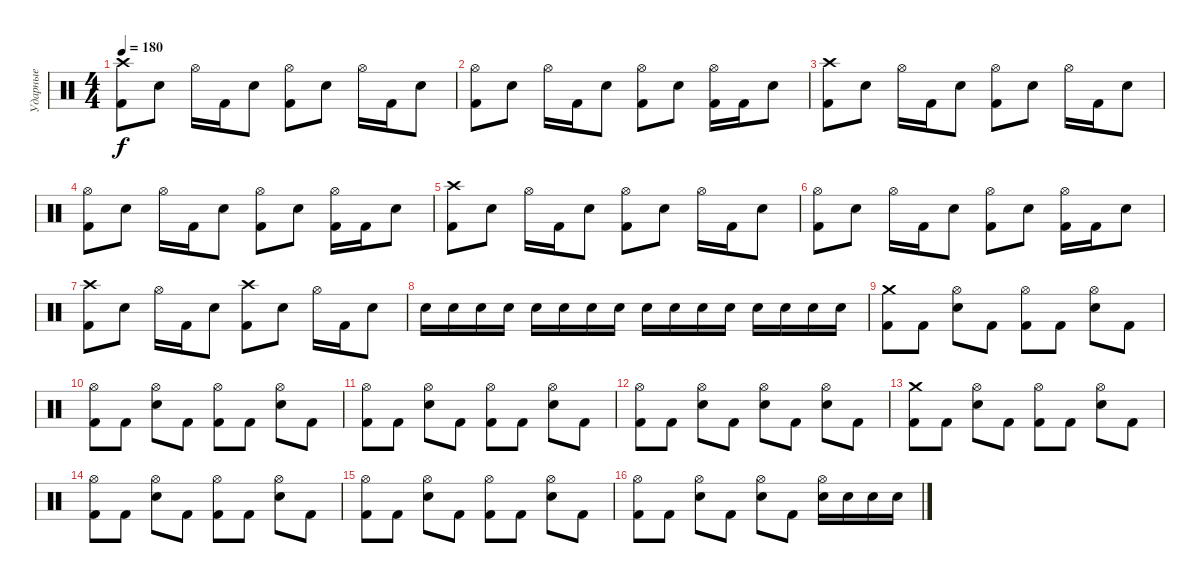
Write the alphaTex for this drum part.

\track ("Ударные" "Ударные") {instrument percussion}
\staff {score}
\articulation defaults
\ts (4 4)
\tempo 180
\clef neutral
\ks c
("Crash high (hit)" "Kick (hit) 2").8{dy f} "Electric Snare (hit)".8 "Hi-Hat (open)".16 "Kick (hit) 2".16 "Electric Snare (hit)".8 ("Hi-Hat (open)" "Kick (hit) 2").8 "Electric Snare (hit)".8 "Hi-Hat (open)".16 "Kick (hit) 2".16 "Electric Snare (hit)".8 |
("Hi-Hat (open)" "Kick (hit) 2").8 "Electric Snare (hit)".8 "Hi-Hat (open)".16 "Kick (hit) 2".16 "Electric Snare (hit)".8 ("Hi-Hat (open)" "Kick (hit) 2").8 "Electric Snare (hit)".8 ("Hi-Hat (open)" "Kick (hit) 2").16 "Kick (hit) 2".16 "Electric Snare (hit)".8 |
("Crash high (hit)" "Kick (hit) 2").8 "Electric Snare (hit)".8 "Hi-Hat (open)".16 "Kick (hit) 2".16 "Electric Snare (hit)".8 ("Hi-Hat (open)" "Kick (hit) 2").8 "Electric Snare (hit)".8 "Hi-Hat (open)".16 "Kick (hit) 2".16 "Electric Snare (hit)".8 |
("Hi-Hat (open)" "Kick (hit) 2").8 "Electric Snare (hit)".8 "Hi-Hat (open)".16 "Kick (hit) 2".16 "Electric Snare (hit)".8 ("Hi-Hat (open)" "Kick (hit) 2").8 "Electric Snare (hit)".8 ("Hi-Hat (open)" "Kick (hit) 2").16 "Kick (hit) 2".16 "Electric Snare (hit)".8 |
("Crash high (hit)" "Kick (hit) 2").8 "Electric Snare (hit)".8 "Hi-Hat (open)".16 "Kick (hit) 2".16 "Electric Snare (hit)".8 ("Hi-Hat (open)" "Kick (hit) 2").8 "Electric Snare (hit)".8 "Hi-Hat (open)".16 "Kick (hit) 2".16 "Electric Snare (hit)".8 |
("Hi-Hat (open)" "Kick (hit) 2").8 "Electric Snare (hit)".8 "Hi-Hat (open)".16 "Kick (hit) 2".16 "Electric Snare (hit)".8 ("Hi-Hat (open)" "Kick (hit) 2").8 "Electric Snare (hit)".8 ("Hi-Hat (open)" "Kick (hit) 2").16 "Kick (hit) 2".16 "Electric Snare (hit)".8 |
("Crash high (hit)" "Kick (hit) 2").8 "Electric Snare (hit)".8 "Hi-Hat (open)".16 "Kick (hit) 2".16 "Electric Snare (hit)".8 ("Crash high (hit)" "Kick (hit) 2").8 "Electric Snare (hit)".8 "Hi-Hat (open)".16 "Kick (hit) 2".16 "Electric Snare (hit)".8 |
"Electric Snare (hit)".16 "Electric Snare (hit)".16 "Electric Snare (hit)".16 "Electric Snare (hit)".16 "Electric Snare (hit)".16 "Electric Snare (hit)".16 "Electric Snare (hit)".16 "Electric Snare (hit)".16 "Electric Snare (hit)".16 "Electric Snare (hit)".16 "Electric Snare (hit)".16 "Electric Snare (hit)".16 "Electric Snare (hit)".16 "Electric Snare (hit)".16 "Electric Snare (hit)".16 "Electric Snare (hit)".16 |
("Crash medium (hit)" "Kick (hit) 2").8 "Kick (hit) 2".8 ("Hi-Hat (open)" "Electric Snare (hit)").8 "Kick (hit) 2".8 ("Hi-Hat (open)" "Kick (hit) 2").8 "Kick (hit) 2".8 ("Hi-Hat (open)" "Electric Snare (hit)").8 "Kick (hit) 2".8 |
("Hi-Hat (open)" "Kick (hit) 2").8 "Kick (hit) 2".8 ("Hi-Hat (open)" "Electric Snare (hit)").8 "Kick (hit) 2".8 ("Hi-Hat (open)" "Kick (hit) 2").8 "Kick (hit) 2".8 ("Hi-Hat (open)" "Electric Snare (hit)").8 "Kick (hit) 2".8 |
("Hi-Hat (open)" "Kick (hit) 2").8 "Kick (hit) 2".8 ("Hi-Hat (open)" "Electric Snare (hit)").8 "Kick (hit) 2".8 ("Hi-Hat (open)" "Kick (hit) 2").8 "Kick (hit) 2".8 ("Hi-Hat (open)" "Electric Snare (hit)").8 "Kick (hit) 2".8 |
("Hi-Hat (open)" "Kick (hit) 2").8 "Kick (hit) 2".8 ("Hi-Hat (open)" "Electric Snare (hit)").8 "Kick (hit) 2".8 ("Hi-Hat (open)" "Electric Snare (hit)").8 "Kick (hit) 2".8 ("Hi-Hat (open)" "Electric Snare (hit)").8 "Kick (hit) 2".8 |
("Crash medium (hit)" "Kick (hit) 2").8 "Kick (hit) 2".8 ("Hi-Hat (open)" "Electric Snare (hit)").8 "Kick (hit) 2".8 ("Hi-Hat (open)" "Kick (hit) 2").8 "Kick (hit) 2".8 ("Hi-Hat (open)" "Electric Snare (hit)").8 "Kick (hit) 2".8 |
("Hi-Hat (open)" "Kick (hit) 2").8 "Kick (hit) 2".8 ("Hi-Hat (open)" "Electric Snare (hit)").8 "Kick (hit) 2".8 ("Hi-Hat (open)" "Kick (hit) 2").8 "Kick (hit) 2".8 ("Hi-Hat (open)" "Electric Snare (hit)").8 "Kick (hit) 2".8 |
("Hi-Hat (open)" "Kick (hit) 2").8 "Kick (hit) 2".8 ("Hi-Hat (open)" "Electric Snare (hit)").8 "Kick (hit) 2".8 ("Hi-Hat (open)" "Kick (hit) 2").8 "Kick (hit) 2".8 ("Hi-Hat (open)" "Electric Snare (hit)").8 "Kick (hit) 2".8 |
("Hi-Hat (open)" "Kick (hit) 2").8 "Kick (hit) 2".8 ("Hi-Hat (open)" "Electric Snare (hit)").8 "Kick (hit) 2".8 ("Hi-Hat (open)" "Electric Snare (hit)").8 "Kick (hit) 2".8 ("Hi-Hat (open)" "Electric Snare (hit)").16 "Electric Snare (hit)".16 "Electric Snare (hit)".16 "Electric Snare (hit)".16
